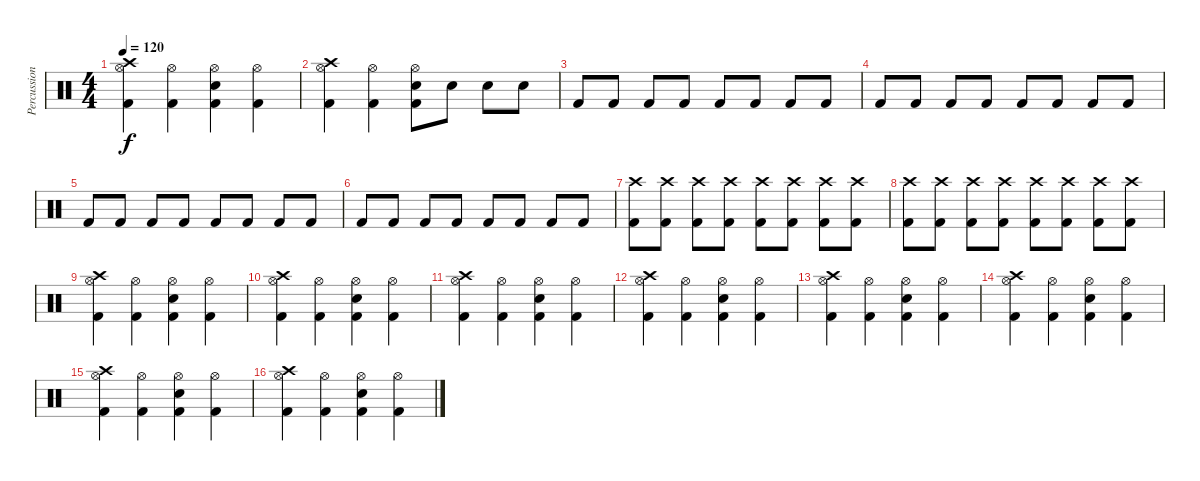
\track ("Percussion" "Percussion") {instrument percussion}
\staff {score}
\articulation defaults
\ts (4 4)
\tempo 120
\clef neutral
\ks c
("Crash high (hit)" "Hi-Hat (open)" "Kick (hit) 2").4{dy f} ("Hi-Hat (open)" "Kick (hit) 2").4 ("Snare (hit) 2" "Hi-Hat (open)" "Kick (hit) 2").4 ("Hi-Hat (open)" "Kick (hit) 2").4 |
("Crash high (hit)" "Hi-Hat (open)" "Kick (hit) 2").4 ("Hi-Hat (open)" "Kick (hit) 2").4 ("Snare (hit) 2" "Hi-Hat (open)" "Kick (hit) 2").8 "Snare (hit) 2".8 "Snare (hit) 2".8 "Snare (hit) 2".8 |
"Kick (hit) 2".8 "Kick (hit) 2".8 "Kick (hit) 2".8 "Kick (hit) 2".8 "Kick (hit) 2".8 "Kick (hit) 2".8 "Kick (hit) 2".8 "Kick (hit) 2".8 |
"Kick (hit) 2".8 "Kick (hit) 2".8 "Kick (hit) 2".8 "Kick (hit) 2".8 "Kick (hit) 2".8 "Kick (hit) 2".8 "Kick (hit) 2".8 "Kick (hit) 2".8 |
"Kick (hit) 2".8 "Kick (hit) 2".8 "Kick (hit) 2".8 "Kick (hit) 2".8 "Kick (hit) 2".8 "Kick (hit) 2".8 "Kick (hit) 2".8 "Kick (hit) 2".8 |
"Kick (hit) 2".8 "Kick (hit) 2".8 "Kick (hit) 2".8 "Kick (hit) 2".8 "Kick (hit) 2".8 "Kick (hit) 2".8 "Kick (hit) 2".8 "Kick (hit) 2".8 |
("Crash high (hit)" "Kick (hit) 2").8 ("Crash high (hit)" "Kick (hit) 2").8 ("Crash high (hit)" "Kick (hit) 2").8 ("Crash high (hit)" "Kick (hit) 2").8 ("Crash high (hit)" "Kick (hit) 2").8 ("Crash high (hit)" "Kick (hit) 2").8 ("Crash high (hit)" "Kick (hit) 2").8 ("Crash high (hit)" "Kick (hit) 2").8 |
("Crash high (hit)" "Kick (hit) 2").8 ("Crash high (hit)" "Kick (hit) 2").8 ("Crash high (hit)" "Kick (hit) 2").8 ("Crash high (hit)" "Kick (hit) 2").8 ("Crash high (hit)" "Kick (hit) 2").8 ("Crash high (hit)" "Kick (hit) 2").8 ("Crash high (hit)" "Kick (hit) 2").8 ("Crash high (hit)" "Kick (hit) 2").8 |
("Crash high (hit)" "Hi-Hat (open)" "Kick (hit) 2").4 ("Hi-Hat (open)" "Kick (hit) 2").4 ("Snare (hit) 2" "Hi-Hat (open)" "Kick (hit) 2").4 ("Hi-Hat (open)" "Kick (hit) 2").4 |
("Crash high (hit)" "Hi-Hat (open)" "Kick (hit) 2").4 ("Hi-Hat (open)" "Kick (hit) 2").4 ("Snare (hit) 2" "Hi-Hat (open)" "Kick (hit) 2").4 ("Hi-Hat (open)" "Kick (hit) 2").4 |
("Crash high (hit)" "Hi-Hat (open)" "Kick (hit) 2").4 ("Hi-Hat (open)" "Kick (hit) 2").4 ("Snare (hit) 2" "Hi-Hat (open)" "Kick (hit) 2").4 ("Hi-Hat (open)" "Kick (hit) 2").4 |
("Crash high (hit)" "Hi-Hat (open)" "Kick (hit) 2").4 ("Hi-Hat (open)" "Kick (hit) 2").4 ("Snare (hit) 2" "Hi-Hat (open)" "Kick (hit) 2").4 ("Hi-Hat (open)" "Kick (hit) 2").4 |
("Crash high (hit)" "Hi-Hat (open)" "Kick (hit) 2").4 ("Hi-Hat (open)" "Kick (hit) 2").4 ("Snare (hit) 2" "Hi-Hat (open)" "Kick (hit) 2").4 ("Hi-Hat (open)" "Kick (hit) 2").4 |
("Crash high (hit)" "Hi-Hat (open)" "Kick (hit) 2").4 ("Hi-Hat (open)" "Kick (hit) 2").4 ("Snare (hit) 2" "Hi-Hat (open)" "Kick (hit) 2").4 ("Hi-Hat (open)" "Kick (hit) 2").4 |
("Crash high (hit)" "Hi-Hat (open)" "Kick (hit) 2").4 ("Hi-Hat (open)" "Kick (hit) 2").4 ("Snare (hit) 2" "Hi-Hat (open)" "Kick (hit) 2").4 ("Hi-Hat (open)" "Kick (hit) 2").4 |
("Crash high (hit)" "Hi-Hat (open)" "Kick (hit) 2").4 ("Hi-Hat (open)" "Kick (hit) 2").4 ("Snare (hit) 2" "Hi-Hat (open)" "Kick (hit) 2").4 ("Hi-Hat (open)" "Kick (hit) 2").4
